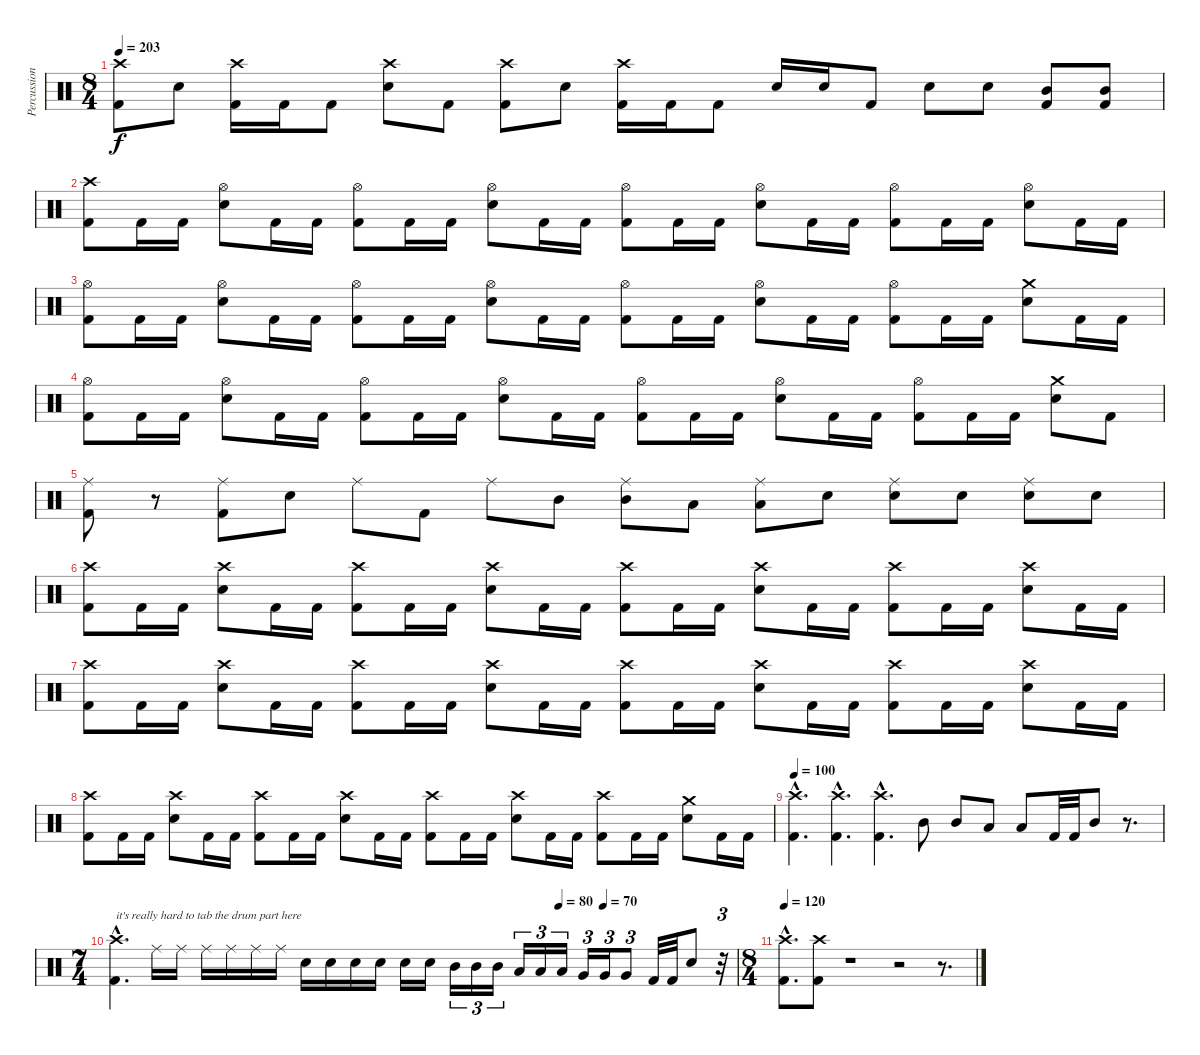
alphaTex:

\track ("Percussion" "Percussion") {instrument percussion}
\staff {score}
\articulation defaults
\ts (8 4)
\tempo 203
\clef neutral
\ks c
("Crash high (hit)" "Kick (hit) 2").8{dy f} "Snare (hit) 2".8 ("Crash high (hit)" "Kick (hit) 2").16 "Kick (hit) 2".16 "Kick (hit) 2".8 ("Crash high (hit)" "Snare (hit) 2").8 "Kick (hit) 2".8 ("Crash high (hit)" "Kick (hit) 2").8 "Snare (hit) 2".8 ("Crash high (hit)" "Kick (hit) 2").16 "Kick (hit) 2".16 "Kick (hit) 2".8 "Snare (hit) 2".16 "Snare (hit) 2".16 "Kick (hit) 2".8 "Snare (hit) 2".8 "Snare (hit) 2".8 ("Mid Tom (hit)" "Kick (hit) 2").8 ("Mid Tom (hit)" "Kick (hit) 2").8 |
("Crash high (hit)" "Kick (hit) 2").8 "Kick (hit) 2".16 "Kick (hit) 2".16 ("Hi-Hat (open)" "Snare (hit) 2").8 "Kick (hit) 2".16 "Kick (hit) 2".16 ("Hi-Hat (open)" "Kick (hit) 2").8 "Kick (hit) 2".16 "Kick (hit) 2".16 ("Hi-Hat (open)" "Snare (hit) 2").8 "Kick (hit) 2".16 "Kick (hit) 2".16 ("Hi-Hat (open)" "Kick (hit) 2").8 "Kick (hit) 2".16 "Kick (hit) 2".16 ("Hi-Hat (open)" "Snare (hit) 2").8 "Kick (hit) 2".16 "Kick (hit) 2".16 ("Hi-Hat (open)" "Kick (hit) 2").8 "Kick (hit) 2".16 "Kick (hit) 2".16 ("Hi-Hat (open)" "Snare (hit) 2").8 "Kick (hit) 2".16 "Kick (hit) 2".16 |
("Hi-Hat (open)" "Kick (hit) 2").8 "Kick (hit) 2".16 "Kick (hit) 2".16 ("Hi-Hat (open)" "Snare (hit) 2").8 "Kick (hit) 2".16 "Kick (hit) 2".16 ("Hi-Hat (open)" "Kick (hit) 2").8 "Kick (hit) 2".16 "Kick (hit) 2".16 ("Hi-Hat (open)" "Snare (hit) 2").8 "Kick (hit) 2".16 "Kick (hit) 2".16 ("Hi-Hat (open)" "Kick (hit) 2").8 "Kick (hit) 2".16 "Kick (hit) 2".16 ("Hi-Hat (open)" "Snare (hit) 2").8 "Kick (hit) 2".16 "Kick (hit) 2".16 ("Hi-Hat (open)" "Kick (hit) 2").8 "Kick (hit) 2".16 "Kick (hit) 2".16 ("Crash medium (hit)" "Snare (hit) 2").8 "Kick (hit) 2".16 "Kick (hit) 2".16 |
("Hi-Hat (open)" "Kick (hit) 2").8 "Kick (hit) 2".16 "Kick (hit) 2".16 ("Hi-Hat (open)" "Snare (hit) 2").8 "Kick (hit) 2".16 "Kick (hit) 2".16 ("Hi-Hat (open)" "Kick (hit) 2").8 "Kick (hit) 2".16 "Kick (hit) 2".16 ("Hi-Hat (open)" "Snare (hit) 2").8 "Kick (hit) 2".16 "Kick (hit) 2".16 ("Hi-Hat (open)" "Kick (hit) 2").8 "Kick (hit) 2".16 "Kick (hit) 2".16 ("Hi-Hat (open)" "Snare (hit) 2").8 "Kick (hit) 2".16 "Kick (hit) 2".16 ("Hi-Hat (open)" "Kick (hit) 2").8 "Kick (hit) 2".16 "Kick (hit) 2".16 ("Crash medium (hit)" "Snare (hit) 2").8 "Kick (hit) 2".8 |
("Ride (middle)" "Kick (hit) 2").8 r.8 ("Ride (middle)" "Kick (hit) 2").8 "Snare (hit) 2".8 "Ride (middle)".8 "Kick (hit) 2".8 "Ride (middle)".8 "Mid Tom (hit)".8 ("Ride (middle)" "Mid Tom (hit)").8 "Low Tom (hit)".8 ("Ride (middle)" "Low Tom (hit)").8 "Snare (hit) 2".8 ("Ride (middle)" "Snare (hit) 2").8 "Snare (hit) 2".8 ("Ride (middle)" "Snare (hit) 2").8 "Snare (hit) 2".8 |
("Crash high (hit)" "Kick (hit) 2").8 "Kick (hit) 2".16 "Kick (hit) 2".16 ("Crash high (hit)" "Snare (hit) 2").8 "Kick (hit) 2".16 "Kick (hit) 2".16 ("Crash high (hit)" "Kick (hit) 2").8 "Kick (hit) 2".16 "Kick (hit) 2".16 ("Crash high (hit)" "Snare (hit) 2").8 "Kick (hit) 2".16 "Kick (hit) 2".16 ("Crash high (hit)" "Kick (hit) 2").8 "Kick (hit) 2".16 "Kick (hit) 2".16 ("Crash high (hit)" "Snare (hit) 2").8 "Kick (hit) 2".16 "Kick (hit) 2".16 ("Crash high (hit)" "Kick (hit) 2").8 "Kick (hit) 2".16 "Kick (hit) 2".16 ("Crash high (hit)" "Snare (hit) 2").8 "Kick (hit) 2".16 "Kick (hit) 2".16 |
("Crash high (hit)" "Kick (hit) 2").8 "Kick (hit) 2".16 "Kick (hit) 2".16 ("Crash high (hit)" "Snare (hit) 2").8 "Kick (hit) 2".16 "Kick (hit) 2".16 ("Crash high (hit)" "Kick (hit) 2").8 "Kick (hit) 2".16 "Kick (hit) 2".16 ("Crash high (hit)" "Snare (hit) 2").8 "Kick (hit) 2".16 "Kick (hit) 2".16 ("Crash high (hit)" "Kick (hit) 2").8 "Kick (hit) 2".16 "Kick (hit) 2".16 ("Crash high (hit)" "Snare (hit) 2").8 "Kick (hit) 2".16 "Kick (hit) 2".16 ("Crash high (hit)" "Kick (hit) 2").8 "Kick (hit) 2".16 "Kick (hit) 2".16 ("Crash high (hit)" "Snare (hit) 2").8 "Kick (hit) 2".16 "Kick (hit) 2".16 |
("Crash high (hit)" "Kick (hit) 2").8 "Kick (hit) 2".16 "Kick (hit) 2".16 ("Crash high (hit)" "Snare (hit) 2").8 "Kick (hit) 2".16 "Kick (hit) 2".16 ("Crash high (hit)" "Kick (hit) 2").8 "Kick (hit) 2".16 "Kick (hit) 2".16 ("Crash high (hit)" "Snare (hit) 2").8 "Kick (hit) 2".16 "Kick (hit) 2".16 ("Crash high (hit)" "Kick (hit) 2").8 "Kick (hit) 2".16 "Kick (hit) 2".16 ("Crash high (hit)" "Snare (hit) 2").8 "Kick (hit) 2".16 "Kick (hit) 2".16 ("Crash high (hit)" "Kick (hit) 2").8 "Kick (hit) 2".16 "Kick (hit) 2".16 ("Crash medium (hit)" "Snare (hit) 2").8 "Kick (hit) 2".16 "Kick (hit) 2".16 |
\tempo 100
("Crash high (hit)"{hac} "Kick (hit) 2"{hac}).4{d} ("Crash high (hit)"{hac} "Kick (hit) 2"{hac}).4{d} ("Crash high (hit)"{hac} "Kick (hit) 2"{hac}).4{d} "Mid Tom (hit)".8 "Mid Tom (hit)".8 "Low Tom (hit)".8 "Low Tom (hit)".8 "Kick (hit) 2".32 "Kick (hit) 2".32 "Mid Tom (hit)".8 r.8{d} |
\ts (7 4)
\tempo (80 0.7142857142857143)
\tempo (70 0.7857142857142857)
("Crash high (hit)"{hac} "Kick (hit) 2"{hac}).4{d txt "it's really hard to tab the drum part here"} "Ride (middle)".16 "Ride (middle)".16 "Ride (middle)".16 "Ride (middle)".16 "Ride (middle)".16 "Ride (middle)".16 "Snare (hit) 2".16 "Snare (hit) 2".16 "Snare (hit) 2".16 "Snare (hit) 2".16 "Snare (hit) 2".16 "Snare (hit) 2".16 "Mid Tom (hit)".16{tu (3 2)} "Mid Tom (hit)".16{tu (3 2)} "Mid Tom (hit)".16{tu (3 2)} "Low Tom (hit)".16{tu (3 2)} "Low Tom (hit)".16{tu (3 2)} "Low Tom (hit)".16{tu (3 2)} "Very Low Tom (hit)".16{tu (3 2)} "Very Low Tom (hit)".16{tu (3 2)} "Very Low Tom (hit)".8{tu (3 2)} "Kick (hit) 2".32 "Kick (hit) 2".32 "Snare (hit) 2".8 r.32{tu (3 2)} |
\ts (8 4)
\tempo 120
("Crash high (hit)"{hac} "Kick (hit) 2"{hac}).8{d} ("Crash high (hit)" "Kick (hit) 2").8 r.1 r.2 r.8{d}
